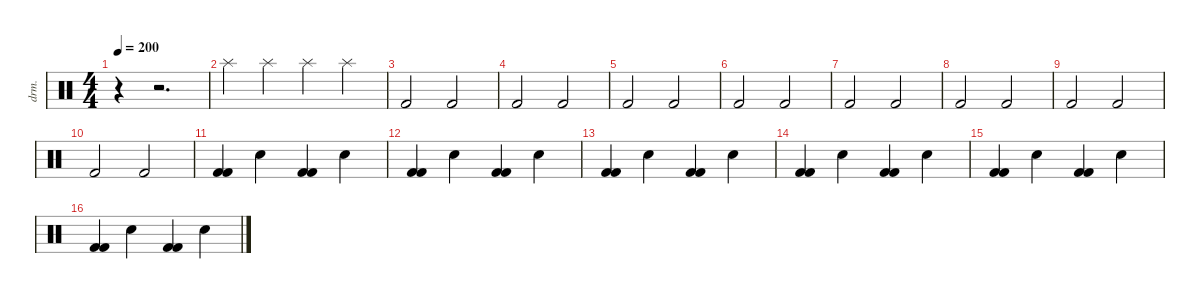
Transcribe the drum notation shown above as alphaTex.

\defaultSystemsLayout 4
\hideDynamics
\bracketExtendMode nobrackets
\track ("Perkusja" "drm.") {instrument percussion}
\staff {score}
\articulation defaults
\ts (4 4)
\tempo 200
\clef neutral
\ks c
r.4{dy f} r.2{d} |
"Splash (hit)".4 "Splash (hit)".4 "Splash (hit)".4 "Splash (hit)".4 |
"Kick (hit) 2".2 "Kick (hit) 2".2 |
"Kick (hit) 2".2 "Kick (hit) 2".2 |
"Kick (hit) 2".2 "Kick (hit) 2".2 |
"Kick (hit) 2".2 "Kick (hit) 2".2 |
"Kick (hit) 2".2 "Kick (hit) 2".2 |
"Kick (hit) 2".2 "Kick (hit) 2".2 |
"Kick (hit) 2".2 "Kick (hit) 2".2 |
"Kick (hit) 2".2 "Kick (hit) 2".2 |
("Kick (hit) 2" "Kick (hit) 2").4 "Snare (hit) 2".4 ("Kick (hit) 2" "Kick (hit) 2").4 "Snare (hit) 2".4 |
("Kick (hit) 2" "Kick (hit) 2").4 "Snare (hit) 2".4 ("Kick (hit) 2" "Kick (hit) 2").4 "Snare (hit) 2".4 |
("Kick (hit) 2" "Kick (hit) 2").4 "Snare (hit) 2".4 ("Kick (hit) 2" "Kick (hit) 2").4 "Snare (hit) 2".4 |
("Kick (hit) 2" "Kick (hit) 2").4 "Snare (hit) 2".4 ("Kick (hit) 2" "Kick (hit) 2").4 "Snare (hit) 2".4 |
("Kick (hit) 2" "Kick (hit) 2").4 "Snare (hit) 2".4 ("Kick (hit) 2" "Kick (hit) 2").4 "Snare (hit) 2".4 |
("Kick (hit) 2" "Kick (hit) 2").4 "Snare (hit) 2".4 ("Kick (hit) 2" "Kick (hit) 2").4 "Snare (hit) 2".4
